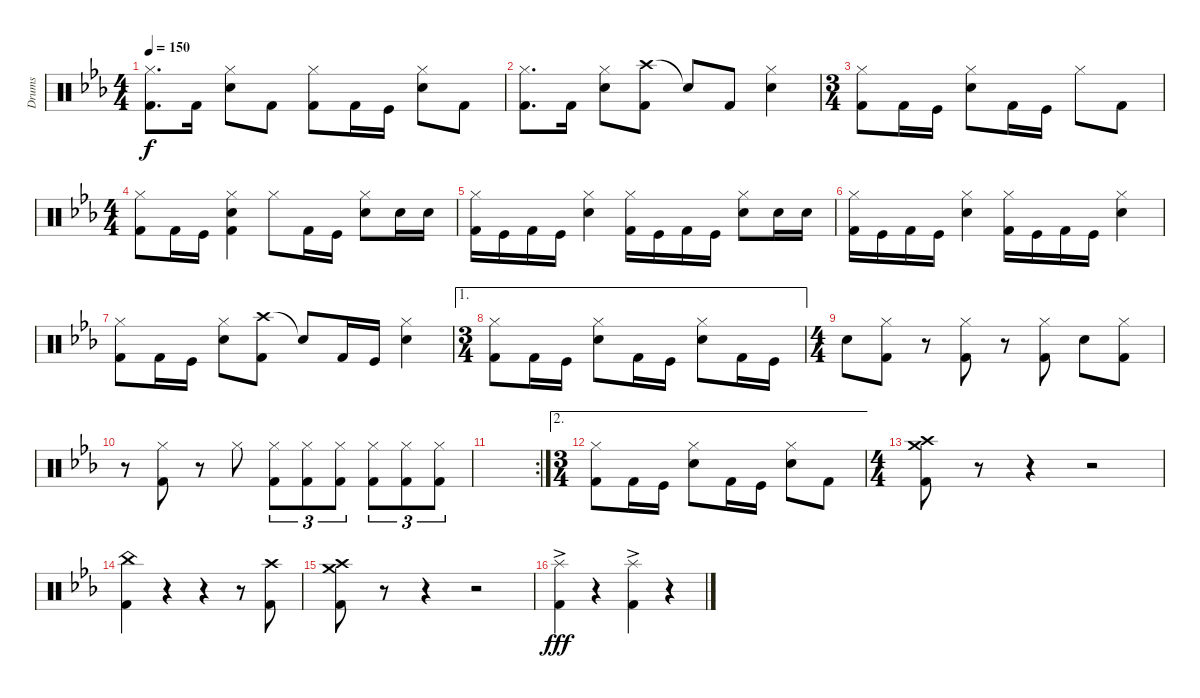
\track ("Drums" "Drums") {instrument percussion}
\staff {score}
\articulation defaults
\ts (4 4)
\tempo 150
\clef neutral
\ks eb
("Hi-Hat (closed)" "Kick (hit) 2").8{d dy f} "Kick (hit) 2".16 ("Hi-Hat (closed)" "Electric Snare (hit)").8 "Kick (hit) 2".8 ("Hi-Hat (closed)" "Kick (hit) 2").8 "Kick (hit) 2".16 "Kick (hit)".16 ("Hi-Hat (closed)" "Electric Snare (hit)").8 "Kick (hit) 2".8 |
("Hi-Hat (closed)" "Kick (hit) 2").8{d} "Kick (hit) 2".16 ("Hi-Hat (closed)" "Electric Snare (hit)").8 ("Crash high (hit)" "Kick (hit) 2").8 "Snare (hit)"{t}.8 "Kick (hit) 2".8 ("Hi-Hat (closed)" "Electric Snare (hit)").4 |
\ts (3 4)
("Hi-Hat (closed)" "Kick (hit) 2").8 "Kick (hit) 2".16 "Kick (hit)".16 ("Hi-Hat (closed)" "Electric Snare (hit)").8 "Kick (hit) 2".16 "Kick (hit)".16 "Hi-Hat (closed)".8 "Kick (hit) 2".8 |
\ts (4 4)
("Hi-Hat (closed)" "Kick (hit) 2").8 "Kick (hit) 2".16 "Kick (hit)".16 ("Hi-Hat (closed)" "Electric Snare (hit)" "Kick (hit) 2").4 "Hi-Hat (closed)".8 "Kick (hit) 2".16 "Kick (hit)".16 ("Hi-Hat (closed)" "Electric Snare (hit)").8 "Electric Snare (hit)".16 "Electric Snare (hit)".16 |
("Hi-Hat (closed)" "Kick (hit) 2").16 "Kick (hit)".16 "Kick (hit) 2".16 "Kick (hit)".16 ("Hi-Hat (closed)" "Electric Snare (hit)").4 ("Hi-Hat (closed)" "Kick (hit) 2").16 "Kick (hit)".16 "Kick (hit) 2".16 "Kick (hit)".16 ("Hi-Hat (closed)" "Electric Snare (hit)").8 "Electric Snare (hit)".16 "Electric Snare (hit)".16 |
("Hi-Hat (closed)" "Kick (hit) 2").16 "Kick (hit)".16 "Kick (hit) 2".16 "Kick (hit)".16 ("Hi-Hat (closed)" "Electric Snare (hit)").4 ("Hi-Hat (closed)" "Kick (hit) 2").16 "Kick (hit)".16 "Kick (hit) 2".16 "Kick (hit)".16 ("Hi-Hat (closed)" "Electric Snare (hit)").4 |
("Hi-Hat (closed)" "Kick (hit) 2").8 "Kick (hit) 2".16 "Kick (hit)".16 ("Hi-Hat (closed)" "Electric Snare (hit)").8 ("Crash high (hit)" "Kick (hit) 2").8 "Snare (hit)"{t}.8 "Kick (hit) 2".16 "Kick (hit)".16 ("Hi-Hat (closed)" "Electric Snare (hit)").4 |
\ae 1
\ts (3 4)
("Hi-Hat (closed)" "Kick (hit) 2").8 "Kick (hit) 2".16 "Kick (hit)".16 ("Hi-Hat (closed)" "Electric Snare (hit)").8 "Kick (hit) 2".16 "Kick (hit)".16 ("Hi-Hat (closed)" "Electric Snare (hit)").8 "Kick (hit) 2".16 "Kick (hit)".16 |
\ts (4 4)
"Electric Snare (hit)".8 ("Hi-Hat (closed)" "Kick (hit) 2").8 r.8 ("Hi-Hat (closed)" "Kick (hit) 2").8 r.8 ("Hi-Hat (closed)" "Kick (hit) 2").8 "Electric Snare (hit)".8 ("Hi-Hat (closed)" "Kick (hit) 2").8 |
r.8 ("Hi-Hat (closed)" "Kick (hit) 2").8 r.8 "Hi-Hat (closed)".8 ("Hi-Hat (closed)" "Kick (hit) 2").8{tu (3 2)} ("Hi-Hat (closed)" "Kick (hit) 2").8{tu (3 2)} ("Hi-Hat (closed)" "Kick (hit) 2").8{tu (3 2)} ("Hi-Hat (closed)" "Kick (hit) 2").8{tu (3 2)} ("Hi-Hat (closed)" "Kick (hit) 2").8{tu (3 2)} ("Hi-Hat (closed)" "Kick (hit) 2").8{tu (3 2)} |
\rc 2
|
\ae 2
\ts (3 4)
("Hi-Hat (closed)" "Kick (hit) 2").8 "Kick (hit) 2".16 "Kick (hit)".16 ("Hi-Hat (closed)" "Electric Snare (hit)").8 "Kick (hit) 2".16 "Kick (hit)".16 ("Hi-Hat (closed)" "Electric Snare (hit)").8 "Kick (hit) 2".8 |
\ts (4 4)
("Crash high (hit)" "Crash medium (hit)" "Kick (hit) 2").8 r.8 r.4 r.2 |
("China (hit)" "Kick (hit) 2").4 r.4 r.4 r.8 ("Crash high (hit)" "Kick (hit) 2").8 |
("Crash high (hit)" "Crash medium (hit)" "Kick (hit) 2").8 r.8 r.4 r.2 |
("Splash (hit)"{ac} "Kick (hit) 2").4{dy fff} r.4 ("Splash (hit)"{ac} "Kick (hit) 2").4 r.4
